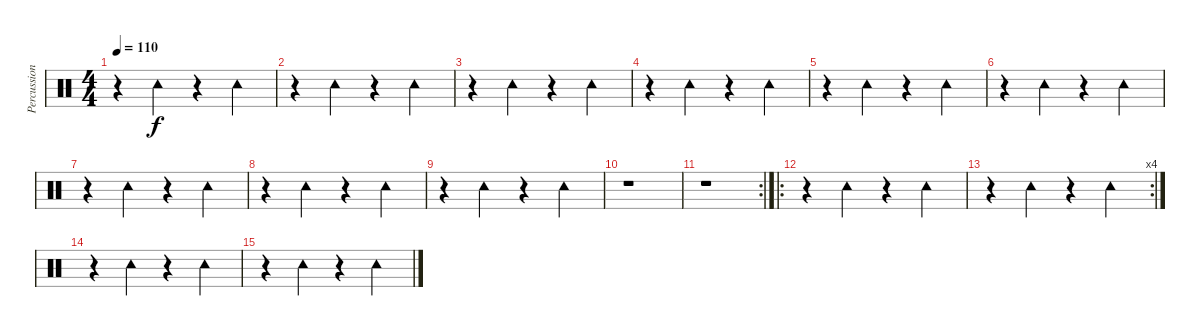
\track ("Percussions" "Percussion") {instrument percussion}
\staff {score}
\articulation defaults
\ts (4 4)
\tempo 110
\clef neutral
\ks c
r.4{dy f} "Tambourine (hit)".4 r.4 "Tambourine (hit)".4 |
r.4 "Tambourine (hit)".4 r.4 "Tambourine (hit)".4 |
r.4 "Tambourine (hit)".4 r.4 "Tambourine (hit)".4 |
r.4 "Tambourine (hit)".4 r.4 "Tambourine (hit)".4 |
r.4 "Tambourine (hit)".4 r.4 "Tambourine (hit)".4 |
r.4 "Tambourine (hit)".4 r.4 "Tambourine (hit)".4 |
r.4 "Tambourine (hit)".4 r.4 "Tambourine (hit)".4 |
r.4 "Tambourine (hit)".4 r.4 "Tambourine (hit)".4 |
r.4 "Tambourine (hit)".4 r.4 "Tambourine (hit)".4 |
r.1 |
\rc 2
r.1 |
\ro
r.4 "Tambourine (hit)".4 r.4 "Tambourine (hit)".4 |
\rc 4
r.4 "Tambourine (hit)".4 r.4 "Tambourine (hit)".4 |
r.4 "Tambourine (hit)".4 r.4 "Tambourine (hit)".4 |
r.4 "Tambourine (hit)".4 r.4 "Tambourine (hit)".4
